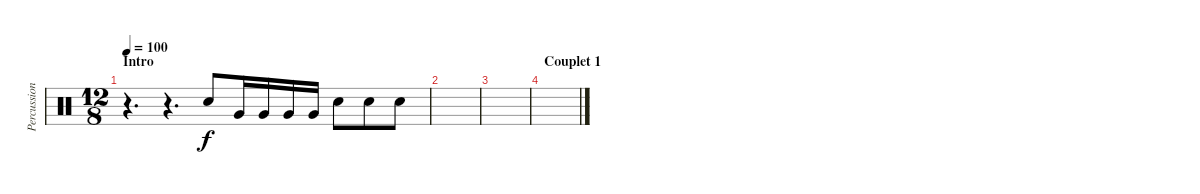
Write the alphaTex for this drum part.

\track ("Percussions" "Percussion") {instrument percussion}
\staff {score}
\articulation defaults
\ts (12 8)
\section ("" "Intro")
\tempo 100
\clef neutral
\ks c
r.4{d dy f} r.4{d} "Snare (hit) 2".8 "Very Low Tom (hit)".16 "Very Low Tom (hit)".16 "Very Low Tom (hit)".16 "Very Low Tom (hit)".16 "Snare (hit) 2".8 "Snare (hit) 2".8 "Snare (hit) 2".8 |
|
|
\section ("" "Couplet 1")
